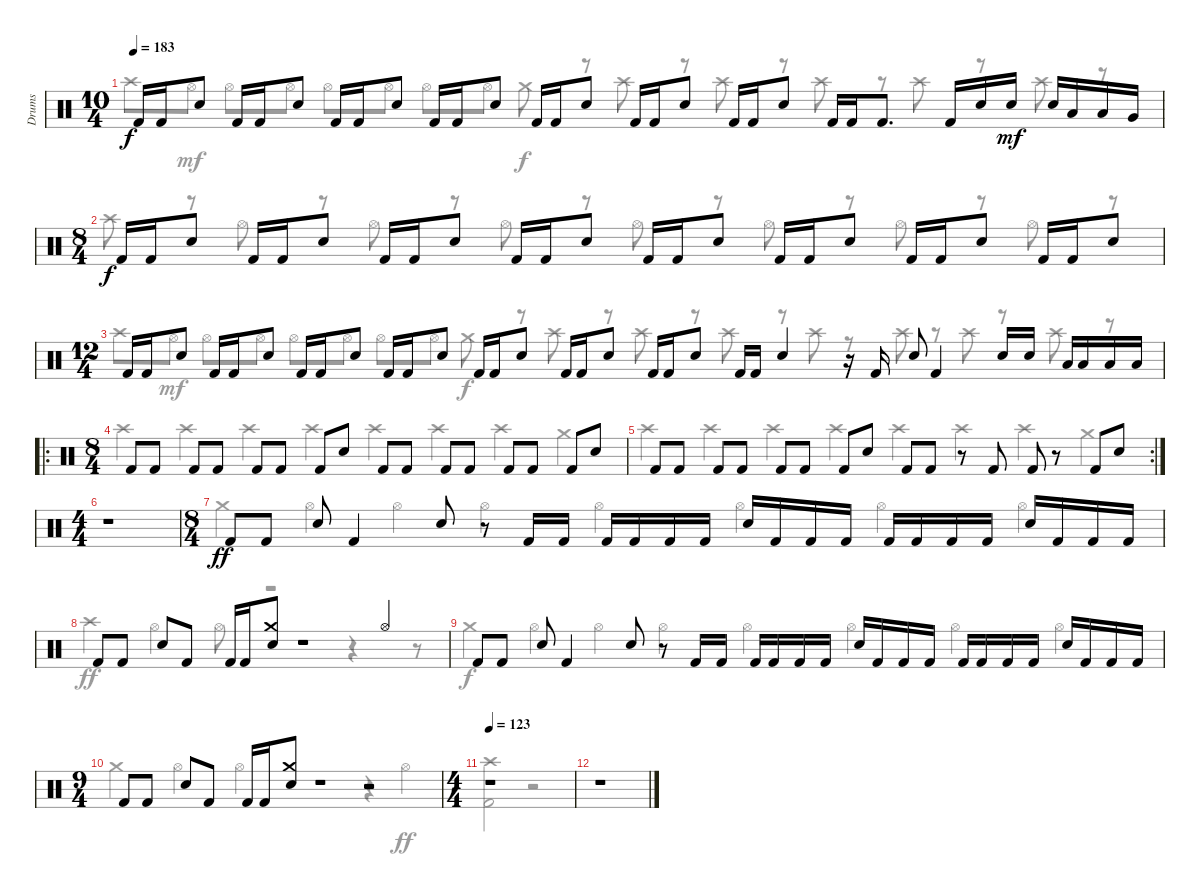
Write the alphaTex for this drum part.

\track ("Drums" "Drums") {instrument percussion}
\staff {score}
\articulation defaults
\voice
\ts (10 4)
\tempo 183
\clef neutral
\ks c "Kick (hit) 2".16{dy f} "Kick (hit) 2".16 "Electric Snare (hit)".8 "Kick (hit) 2".16 "Kick (hit) 2".16 "Electric Snare (hit)".8 "Kick (hit) 2".16 "Kick (hit) 2".16 "Electric Snare (hit)".8 "Kick (hit) 2".16 "Kick (hit) 2".16 "Electric Snare (hit)".8 "Kick (hit) 2".16 "Kick (hit) 2".16 "Electric Snare (hit)".8 "Kick (hit) 2".16 "Kick (hit) 2".16 "Electric Snare (hit)".8 "Kick (hit) 2".16 "Kick (hit) 2".16 "Electric Snare (hit)".8 "Kick (hit) 2".16 "Kick (hit) 2".16 "Kick (hit) 2".8{d} "Kick (hit) 2".16 "Electric Snare (hit)".16 "Electric Snare (hit)".16{dy mf} "Electric Snare (hit)".16 "Low Tom (hit)".16 "Low Tom (hit)".16 "Very Low Tom (hit)".16
|
\ts (8 4)
"Kick (hit) 2".16{dy f} "Kick (hit) 2".16 "Electric Snare (hit)".8 "Kick (hit) 2".16 "Kick (hit) 2".16 "Electric Snare (hit)".8 "Kick (hit) 2".16 "Kick (hit) 2".16 "Electric Snare (hit)".8 "Kick (hit) 2".16 "Kick (hit) 2".16 "Electric Snare (hit)".8 "Kick (hit) 2".16 "Kick (hit) 2".16 "Electric Snare (hit)".8 "Kick (hit) 2".16 "Kick (hit) 2".16 "Electric Snare (hit)".8 "Kick (hit) 2".16 "Kick (hit) 2".16 "Electric Snare (hit)".8 "Kick (hit) 2".16 "Kick (hit) 2".16 "Electric Snare (hit)".8 |
\ts (12 4)
"Kick (hit) 2".16 "Kick (hit) 2".16 "Electric Snare (hit)".8 "Kick (hit) 2".16 "Kick (hit) 2".16 "Electric Snare (hit)".8 "Kick (hit) 2".16 "Kick (hit) 2".16 "Electric Snare (hit)".8 "Kick (hit) 2".16 "Kick (hit) 2".16 "Electric Snare (hit)".8 "Kick (hit) 2".16 "Kick (hit) 2".16 "Electric Snare (hit)".8 "Kick (hit) 2".16 "Kick (hit) 2".16 "Electric Snare (hit)".8 "Kick (hit) 2".16 "Kick (hit) 2".16 "Electric Snare (hit)".8 "Kick (hit) 2".16 "Kick (hit) 2".16 "Electric Snare (hit)".4 r.16 "Kick (hit) 2".16 "Electric Snare (hit)".8 "Kick (hit) 2".4 "Electric Snare (hit)".16 "Electric Snare (hit)".16 "Low Tom (hit)".16 "Low Tom (hit)".16 "Low Floor Tom (hit)".16 "Low Floor Tom (hit)".16 |
\ro
\ts (8 4)
"Kick (hit) 2".8 "Kick (hit) 2".8 "Kick (hit) 2".8 "Kick (hit) 2".8 "Kick (hit) 2".8 "Kick (hit) 2".8 "Kick (hit) 2".8 "Electric Snare (hit)".8 "Kick (hit) 2".8 "Kick (hit) 2".8 "Kick (hit) 2".8 "Kick (hit) 2".8 "Kick (hit) 2".8 "Kick (hit) 2".8 "Kick (hit) 2".8 "Electric Snare (hit)".8 |
\rc 2 "Kick (hit) 2".8 "Kick (hit) 2".8 "Kick (hit) 2".8 "Kick (hit) 2".8 "Kick (hit) 2".8 "Kick (hit) 2".8 "Kick (hit) 2".8 "Electric Snare (hit)".8 "Kick (hit) 2".8 "Kick (hit) 2".8
r.8 "Kick (hit) 2".8 "Kick (hit) 2".8 r.8 "Kick (hit) 2".8 "Electric Snare (hit)".8 |
\ts (4 4)
r.1 |
\ts (8 4)
"Kick (hit) 2".8{dy ff} "Kick (hit) 2".8 "Electric Snare (hit)".8 "Kick (hit) 2".4 "Electric Snare (hit)".8 r.8 "Kick (hit) 2".16 "Kick (hit) 2".16 "Kick (hit) 2".16 "Kick (hit) 2".16 "Kick (hit) 2".16 "Kick (hit) 2".16 "Electric Snare (hit)".16 "Kick (hit) 2".16 "Kick (hit) 2".16 "Kick (hit) 2".16 "Kick (hit) 2".16 "Kick (hit) 2".16 "Kick (hit) 2".16 "Kick (hit) 2".16 "Electric Snare (hit)".16 "Kick (hit) 2".16 "Kick (hit) 2".16 "Kick (hit) 2".16 |
"Kick (hit) 2".8 "Kick (hit) 2".8 "Electric Snare (hit)".8 "Kick (hit) 2".8 "Kick (hit) 2".16 "Kick (hit) 2".16 ("Crash medium (hit)" "Electric Snare (hit)").8 r.1 "Hi-Hat (open)".4 |
"Kick (hit) 2".8 "Kick (hit) 2".8 "Electric Snare (hit)".8 "Kick (hit) 2".4 "Electric Snare (hit)".8 r.8 "Kick (hit) 2".16 "Kick (hit) 2".16 "Kick (hit) 2".16 "Kick (hit) 2".16 "Kick (hit) 2".16 "Kick (hit) 2".16 "Electric Snare (hit)".16 "Kick (hit) 2".16 "Kick (hit) 2".16 "Kick (hit) 2".16 "Kick (hit) 2".16 "Kick (hit) 2".16 "Kick (hit) 2".16 "Kick (hit) 2".16 "Electric Snare (hit)".16 "Kick (hit) 2".16 "Kick (hit) 2".16 "Kick (hit) 2".16 |
\ts (9 4)
"Kick (hit) 2".8 "Kick (hit) 2".8 "Electric Snare (hit)".8 "Kick (hit) 2".8 "Kick (hit) 2".16 "Kick (hit) 2".16 ("Crash medium (hit)" "Electric Snare (hit)").8 r.1 r.2 |
\ts (4 4)
\tempo 123
r.1 |
r.1
\voice
\clef neutral
\ottava regular
\simile none
\ks c "Crash high (hit)".8{dy f} "Hi-Hat (open)".8{dy mf} "Hi-Hat (open)".8 "Hi-Hat (open)".8 "Hi-Hat (open)".8 "Hi-Hat (open)".8 "Hi-Hat (open)".8 "Hi-Hat (open)".8 "Crash medium (hit)".8{dy f}
r.8 "Crash high (hit)".8 r.8 "Crash high (hit)".8 r.8 "Crash high (hit)".8 r.8 "Crash high (hit)".8 r.8 "Crash high (hit)".8 r.8 |
"Crash high (hit)".8 r.8 "Hi-Hat (open)".8 r.8 "Hi-Hat (open)".8 r.8 "Hi-Hat (open)".8 r.8 "Hi-Hat (open)".8 r.8 "Hi-Hat (open)".8 r.8 "Hi-Hat (open)".8 r.8 "Hi-Hat (open)".8 r.8 |
"Crash high (hit)".8 "Hi-Hat (open)".8{dy mf} "Hi-Hat (open)".8 "Hi-Hat (open)".8 "Hi-Hat (open)".8 "Hi-Hat (open)".8 "Hi-Hat (open)".8 "Hi-Hat (open)".8 "Crash medium (hit)".8{dy f} r.8 "Crash high (hit)".8 r.8 "Crash high (hit)".8 r.8 "Crash high (hit)".8 r.8 "Crash high (hit)".8 r.8 "Crash high (hit)".8 r.8 "Crash high (hit)".8 r.8 "Crash high (hit)".8 r.8 |
"Crash high (hit)".4 "Crash high (hit)".4 "Crash high (hit)".4 "Crash high (hit)".4 "Crash high (hit)".4 "Crash high (hit)".4 "Crash high (hit)".4 "Crash medium (hit)".4 |
"Crash high (hit)".4 "Crash high (hit)".4 "Crash high (hit)".4 "Crash high (hit)".4 "Crash high (hit)".4 "Crash high (hit)".4 "Crash high (hit)".4 "Crash medium (hit)".4 |
r.1 |
"Crash medium (hit)".4 "Hi-Hat (open)".4 "Hi-Hat (open)".4 "Hi-Hat (open)".4 "Hi-Hat (open)".4 "Hi-Hat (open)".4 "Hi-Hat (open)".4 "Hi-Hat (open)".4 |
"Crash high (hit)".4{dy ff} "Hi-Hat (open)".4 "Hi-Hat (open)".8 r.1 r.4 r.8 |
"Crash medium (hit)".4{dy f} "Hi-Hat (open)".4 "Hi-Hat (open)".4 "Hi-Hat (open)".4 "Hi-Hat (open)".4 "Hi-Hat (open)".4 "Hi-Hat (open)".4 "Hi-Hat (open)".4 |
"Crash medium (hit)".4 "Hi-Hat (open)".4 "Hi-Hat (open)".4 r.1 r.4 "Hi-Hat (open)".4{dy ff} |
("Crash high (hit)" "Kick (hit) 2").2 r.2 |
r.1
